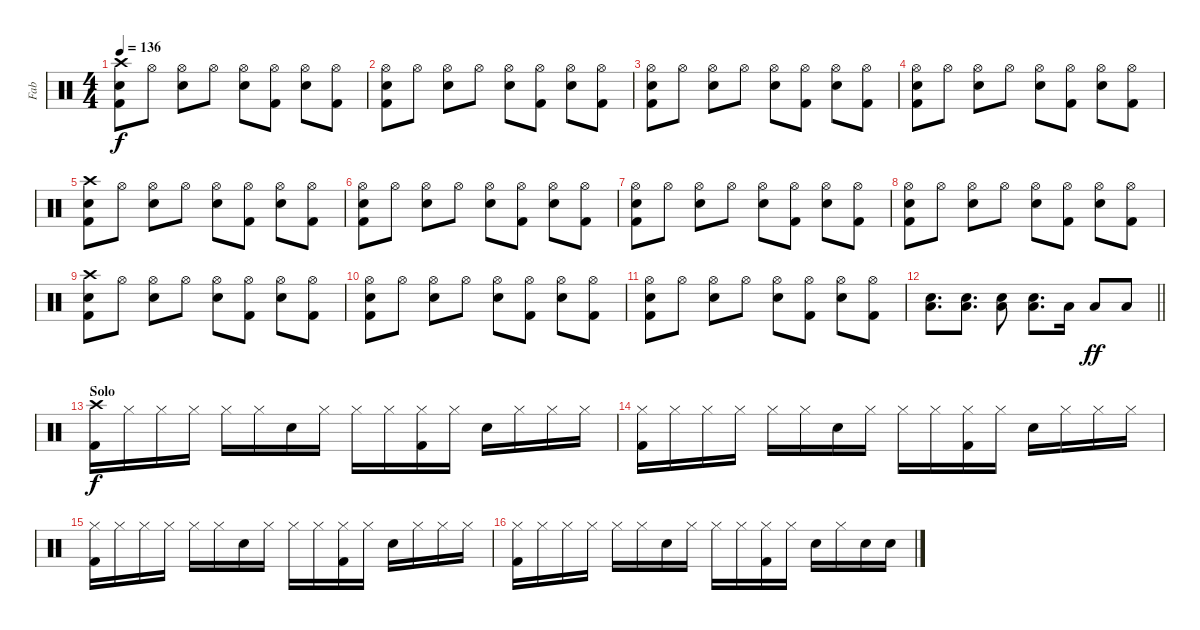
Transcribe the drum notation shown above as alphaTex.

\track ("Fab" "Fab") {instrument percussion}
\staff {score}
\articulation defaults
\ts (4 4)
\tempo 136
\clef neutral
\ks c
("Crash high (hit)" "Snare (hit) 2" "Kick (hit) 2").8{dy f} "Hi-Hat (open)".8 ("Hi-Hat (open)" "Snare (hit) 2").8 "Hi-Hat (open)".8 ("Hi-Hat (open)" "Snare (hit) 2").8 ("Hi-Hat (open)" "Kick (hit) 2").8 ("Hi-Hat (open)" "Snare (hit) 2").8 ("Hi-Hat (open)" "Kick (hit) 2").8 |
("Hi-Hat (open)" "Snare (hit) 2" "Kick (hit) 2").8 "Hi-Hat (open)".8 ("Hi-Hat (open)" "Snare (hit) 2").8 "Hi-Hat (open)".8 ("Hi-Hat (open)" "Snare (hit) 2").8 ("Hi-Hat (open)" "Kick (hit) 2").8 ("Hi-Hat (open)" "Snare (hit) 2").8 ("Hi-Hat (open)" "Kick (hit) 2").8 |
("Hi-Hat (open)" "Snare (hit) 2" "Kick (hit) 2").8 "Hi-Hat (open)".8 ("Hi-Hat (open)" "Snare (hit) 2").8 "Hi-Hat (open)".8 ("Hi-Hat (open)" "Snare (hit) 2").8 ("Hi-Hat (open)" "Kick (hit) 2").8 ("Hi-Hat (open)" "Snare (hit) 2").8 ("Hi-Hat (open)" "Kick (hit) 2").8 |
("Hi-Hat (open)" "Snare (hit) 2" "Kick (hit) 2").8 "Hi-Hat (open)".8 ("Hi-Hat (open)" "Snare (hit) 2").8 "Hi-Hat (open)".8 ("Hi-Hat (open)" "Snare (hit) 2").8 ("Hi-Hat (open)" "Kick (hit) 2").8 ("Hi-Hat (open)" "Snare (hit) 2").8 ("Hi-Hat (open)" "Kick (hit) 2").8 |
("Crash high (hit)" "Snare (hit) 2" "Kick (hit) 2").8 "Hi-Hat (open)".8 ("Hi-Hat (open)" "Snare (hit) 2").8 "Hi-Hat (open)".8 ("Hi-Hat (open)" "Snare (hit) 2").8 ("Hi-Hat (open)" "Kick (hit) 2").8 ("Hi-Hat (open)" "Snare (hit) 2").8 ("Hi-Hat (open)" "Kick (hit) 2").8 |
("Hi-Hat (open)" "Snare (hit) 2" "Kick (hit) 2").8 "Hi-Hat (open)".8 ("Hi-Hat (open)" "Snare (hit) 2").8 "Hi-Hat (open)".8 ("Hi-Hat (open)" "Snare (hit) 2").8 ("Hi-Hat (open)" "Kick (hit) 2").8 ("Hi-Hat (open)" "Snare (hit) 2").8 ("Hi-Hat (open)" "Kick (hit) 2").8 |
("Hi-Hat (open)" "Snare (hit) 2" "Kick (hit) 2").8 "Hi-Hat (open)".8 ("Hi-Hat (open)" "Snare (hit) 2").8 "Hi-Hat (open)".8 ("Hi-Hat (open)" "Snare (hit) 2").8 ("Hi-Hat (open)" "Kick (hit) 2").8 ("Hi-Hat (open)" "Snare (hit) 2").8 ("Hi-Hat (open)" "Kick (hit) 2").8 |
("Hi-Hat (open)" "Snare (hit) 2" "Kick (hit) 2").8 "Hi-Hat (open)".8 ("Hi-Hat (open)" "Snare (hit) 2").8 "Hi-Hat (open)".8 ("Hi-Hat (open)" "Snare (hit) 2").8 ("Hi-Hat (open)" "Kick (hit) 2").8 ("Hi-Hat (open)" "Snare (hit) 2").8 ("Hi-Hat (open)" "Kick (hit) 2").8 |
("Crash high (hit)" "Snare (hit) 2" "Kick (hit) 2").8 "Hi-Hat (open)".8 ("Hi-Hat (open)" "Snare (hit) 2").8 "Hi-Hat (open)".8 ("Hi-Hat (open)" "Snare (hit) 2").8 ("Hi-Hat (open)" "Kick (hit) 2").8 ("Hi-Hat (open)" "Snare (hit) 2").8 ("Hi-Hat (open)" "Kick (hit) 2").8 |
("Hi-Hat (open)" "Snare (hit) 2" "Kick (hit) 2").8 "Hi-Hat (open)".8 ("Hi-Hat (open)" "Snare (hit) 2").8 "Hi-Hat (open)".8 ("Hi-Hat (open)" "Snare (hit) 2").8 ("Hi-Hat (open)" "Kick (hit) 2").8 ("Hi-Hat (open)" "Snare (hit) 2").8 ("Hi-Hat (open)" "Kick (hit) 2").8 |
("Hi-Hat (open)" "Snare (hit) 2" "Kick (hit) 2").8 "Hi-Hat (open)".8 ("Hi-Hat (open)" "Snare (hit) 2").8 "Hi-Hat (open)".8 ("Hi-Hat (open)" "Snare (hit) 2").8 ("Hi-Hat (open)" "Kick (hit) 2").8 ("Hi-Hat (open)" "Snare (hit) 2").8 ("Hi-Hat (open)" "Kick (hit) 2").8 |
\barLineRight lightlight
("Low Tom (hit)" "Snare (hit) 2").8{d} ("Low Tom (hit)" "Snare (hit) 2").8{d} ("Low Tom (hit)" "Snare (hit) 2").8 ("Low Tom (hit)" "Snare (hit) 2").8{d} "Low Tom (hit)".16 "Low Tom (hit)".8{dy ff} "Low Tom (hit)".8 |
\section ("" "Solo")
("Crash high (hit)" "Kick (hit) 2").16{dy f} "Hi-Hat (closed)".16 "Hi-Hat (closed)".16 "Hi-Hat (closed)".16 "Hi-Hat (closed)".16 "Hi-Hat (closed)".16 "Snare (hit) 2".16 "Hi-Hat (closed)".16 "Hi-Hat (closed)".16 "Hi-Hat (closed)".16 ("Hi-Hat (closed)" "Kick (hit) 2").16 "Hi-Hat (closed)".16 "Snare (hit) 2".16 "Hi-Hat (closed)".16 "Hi-Hat (closed)".16 "Hi-Hat (closed)".16 |
("Hi-Hat (closed)" "Kick (hit) 2").16 "Hi-Hat (closed)".16 "Hi-Hat (closed)".16 "Hi-Hat (closed)".16 "Hi-Hat (closed)".16 "Hi-Hat (closed)".16 "Snare (hit) 2".16 "Hi-Hat (closed)".16 "Hi-Hat (closed)".16 "Hi-Hat (closed)".16 ("Hi-Hat (closed)" "Kick (hit) 2").16 "Hi-Hat (closed)".16 "Snare (hit) 2".16 "Hi-Hat (closed)".16 "Hi-Hat (closed)".16 "Hi-Hat (closed)".16 |
("Hi-Hat (closed)" "Kick (hit) 2").16 "Hi-Hat (closed)".16 "Hi-Hat (closed)".16 "Hi-Hat (closed)".16 "Hi-Hat (closed)".16 "Hi-Hat (closed)".16 "Snare (hit) 2".16 "Hi-Hat (closed)".16 "Hi-Hat (closed)".16 "Hi-Hat (closed)".16 ("Hi-Hat (closed)" "Kick (hit) 2").16 "Hi-Hat (closed)".16 "Snare (hit) 2".16 "Hi-Hat (closed)".16 "Hi-Hat (closed)".16 "Hi-Hat (closed)".16 |
("Hi-Hat (closed)" "Kick (hit) 2").16 "Hi-Hat (closed)".16 "Hi-Hat (closed)".16 "Hi-Hat (closed)".16 "Hi-Hat (closed)".16 "Hi-Hat (closed)".16 "Snare (hit) 2".16 "Hi-Hat (closed)".16 "Hi-Hat (closed)".16 "Hi-Hat (closed)".16 ("Hi-Hat (closed)" "Kick (hit) 2").16 "Hi-Hat (closed)".16 "Snare (hit) 2".16 "Hi-Hat (closed)".16 "Snare (hit) 2".16 "Snare (hit) 2".16
